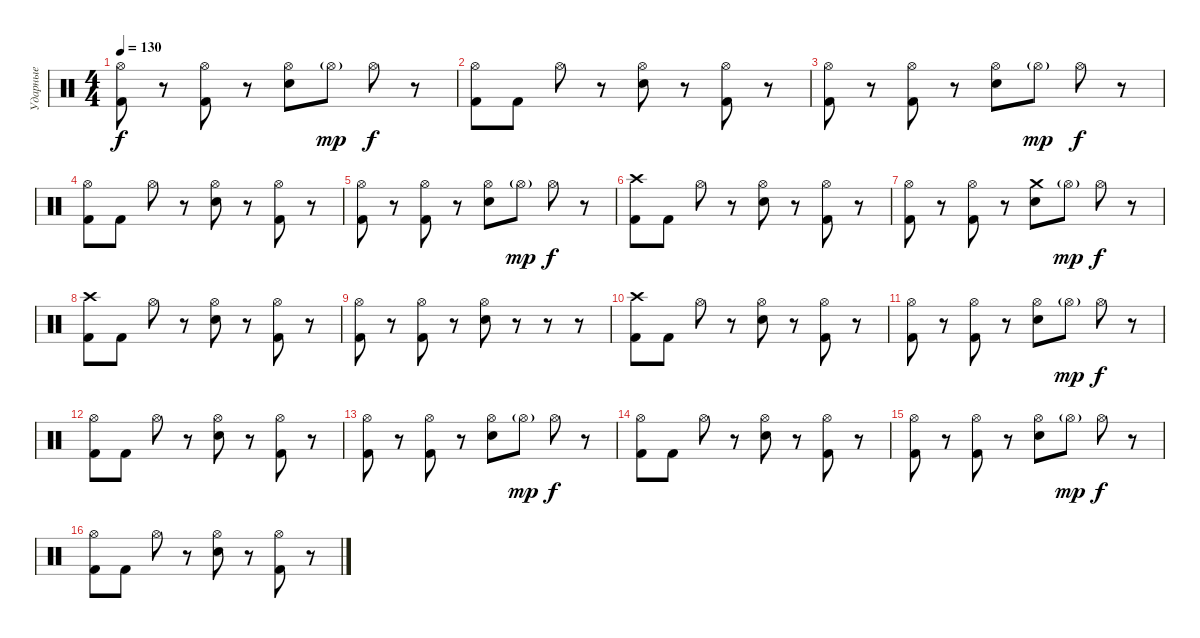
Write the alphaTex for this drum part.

\track ("Ударные" "Ударные") {instrument percussion}
\staff {score}
\articulation defaults
\ts (4 4)
\tempo 130
\clef neutral
\ks c
("Hi-Hat (open)" "Kick (hit) 2").8{dy f} r.8 ("Hi-Hat (open)" "Kick (hit) 2").8 r.8 ("Hi-Hat (open)" "Snare (hit) 2").8 "Hi-Hat (open)"{g}.8{dy mp} "Hi-Hat (open)".8{dy f} r.8 |
("Hi-Hat (open)" "Kick (hit) 2").8 "Kick (hit) 2".8 "Hi-Hat (open)".8 r.8 ("Hi-Hat (open)" "Snare (hit) 2").8 r.8 ("Hi-Hat (open)" "Kick (hit) 2").8 r.8 |
("Hi-Hat (open)" "Kick (hit) 2").8 r.8 ("Hi-Hat (open)" "Kick (hit) 2").8 r.8 ("Hi-Hat (open)" "Snare (hit) 2").8 "Hi-Hat (open)"{g}.8{dy mp} "Hi-Hat (open)".8{dy f} r.8 |
("Hi-Hat (open)" "Kick (hit) 2").8 "Kick (hit) 2".8 "Hi-Hat (open)".8 r.8 ("Hi-Hat (open)" "Snare (hit) 2").8 r.8 ("Hi-Hat (open)" "Kick (hit) 2").8 r.8 |
("Hi-Hat (open)" "Kick (hit) 2").8 r.8 ("Hi-Hat (open)" "Kick (hit) 2").8 r.8 ("Hi-Hat (open)" "Snare (hit) 2").8 "Hi-Hat (open)"{g}.8{dy mp} "Hi-Hat (open)".8{dy f} r.8 |
("Crash high (hit)" "Kick (hit) 2").8 "Kick (hit) 2".8 "Hi-Hat (open)".8 r.8 ("Hi-Hat (open)" "Snare (hit) 2").8 r.8 ("Hi-Hat (open)" "Kick (hit) 2").8 r.8 |
("Hi-Hat (open)" "Kick (hit) 2").8 r.8 ("Hi-Hat (open)" "Kick (hit) 2").8 r.8 ("Crash medium (hit)" "Snare (hit) 2").8 "Hi-Hat (open)"{g}.8{dy mp} "Hi-Hat (open)".8{dy f} r.8 |
("Crash high (hit)" "Kick (hit) 2").8 "Kick (hit) 2".8 "Hi-Hat (open)".8 r.8 ("Hi-Hat (open)" "Snare (hit) 2").8 r.8 ("Hi-Hat (open)" "Kick (hit) 2").8 r.8 |
("Hi-Hat (open)" "Kick (hit) 2").8 r.8 ("Hi-Hat (open)" "Kick (hit) 2").8 r.8 ("Hi-Hat (open)" "Snare (hit) 2").8 r.8 r.8 r.8 |
("Crash high (hit)" "Kick (hit) 2").8 "Kick (hit) 2".8 "Hi-Hat (open)".8 r.8 ("Hi-Hat (open)" "Snare (hit) 2").8 r.8 ("Hi-Hat (open)" "Kick (hit) 2").8 r.8 |
("Hi-Hat (open)" "Kick (hit) 2").8 r.8 ("Hi-Hat (open)" "Kick (hit) 2").8 r.8 ("Hi-Hat (open)" "Snare (hit) 2").8 "Hi-Hat (open)"{g}.8{dy mp} "Hi-Hat (open)".8{dy f} r.8 |
("Hi-Hat (open)" "Kick (hit) 2").8 "Kick (hit) 2".8 "Hi-Hat (open)".8 r.8 ("Hi-Hat (open)" "Snare (hit) 2").8 r.8 ("Hi-Hat (open)" "Kick (hit) 2").8 r.8 |
("Hi-Hat (open)" "Kick (hit) 2").8 r.8 ("Hi-Hat (open)" "Kick (hit) 2").8 r.8 ("Hi-Hat (open)" "Snare (hit) 2").8 "Hi-Hat (open)"{g}.8{dy mp} "Hi-Hat (open)".8{dy f} r.8 |
("Hi-Hat (open)" "Kick (hit) 2").8 "Kick (hit) 2".8 "Hi-Hat (open)".8 r.8 ("Hi-Hat (open)" "Snare (hit) 2").8 r.8 ("Hi-Hat (open)" "Kick (hit) 2").8 r.8 |
("Hi-Hat (open)" "Kick (hit) 2").8 r.8 ("Hi-Hat (open)" "Kick (hit) 2").8 r.8 ("Hi-Hat (open)" "Snare (hit) 2").8 "Hi-Hat (open)"{g}.8{dy mp} "Hi-Hat (open)".8{dy f} r.8 |
("Hi-Hat (open)" "Kick (hit) 2").8 "Kick (hit) 2".8 "Hi-Hat (open)".8 r.8 ("Hi-Hat (open)" "Snare (hit) 2").8 r.8 ("Hi-Hat (open)" "Kick (hit) 2").8 r.8
